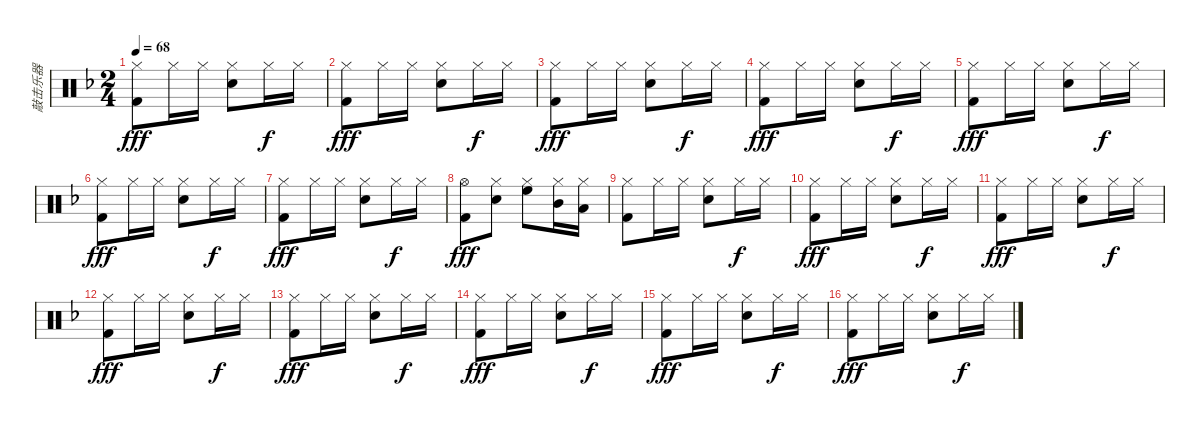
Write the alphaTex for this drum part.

\track ("敲击乐器" "敲击乐器") {instrument percussion}
\staff {score}
\articulation defaults
\ts (2 4)
\tempo 68
\clef neutral
\ks f
("Hi-Hat (closed)" "Kick (hit) 2").8{dy fff} "Hi-Hat (closed)".16 "Hi-Hat (closed)".16 ("Hi-Hat (closed)" "Electric Snare (hit)").8 "Hi-Hat (closed)".16{dy f} "Hi-Hat (closed)".16 |
("Hi-Hat (closed)" "Kick (hit) 2").8{dy fff} "Hi-Hat (closed)".16 "Hi-Hat (closed)".16 ("Hi-Hat (closed)" "Electric Snare (hit)").8 "Hi-Hat (closed)".16{dy f} "Hi-Hat (closed)".16 |
("Hi-Hat (closed)" "Kick (hit) 2").8{dy fff} "Hi-Hat (closed)".16 "Hi-Hat (closed)".16 ("Hi-Hat (closed)" "Electric Snare (hit)").8 "Hi-Hat (closed)".16{dy f} "Hi-Hat (closed)".16 |
("Hi-Hat (closed)" "Kick (hit) 2").8{dy fff} "Hi-Hat (closed)".16 "Hi-Hat (closed)".16 ("Hi-Hat (closed)" "Electric Snare (hit)").8 "Hi-Hat (closed)".16{dy f} "Hi-Hat (closed)".16 |
("Hi-Hat (closed)" "Kick (hit) 2").8{dy fff} "Hi-Hat (closed)".16 "Hi-Hat (closed)".16 ("Hi-Hat (closed)" "Electric Snare (hit)").8 "Hi-Hat (closed)".16{dy f} "Hi-Hat (closed)".16 |
("Hi-Hat (closed)" "Kick (hit) 2").8{dy fff} "Hi-Hat (closed)".16 "Hi-Hat (closed)".16 ("Hi-Hat (closed)" "Electric Snare (hit)").8 "Hi-Hat (closed)".16{dy f} "Hi-Hat (closed)".16 |
("Hi-Hat (closed)" "Kick (hit) 2").8{dy fff} "Hi-Hat (closed)".16 "Hi-Hat (closed)".16 ("Hi-Hat (closed)" "Electric Snare (hit)").8 "Hi-Hat (closed)".16{dy f} "Hi-Hat (closed)".16 |
("Hi-Hat (open)" "Kick (hit) 2").8{dy fff} ("Electric Snare (hit)" "Hi-Hat (closed)").8 ("High Floor Tom (hit)" "Hi-Hat (closed)").8 ("Mid Tom (hit)" "Hi-Hat (closed)").16 ("Low Tom (hit)" "Hi-Hat (closed)").16 |
("Hi-Hat (closed)" "Kick (hit) 2").8 "Hi-Hat (closed)".16 "Hi-Hat (closed)".16 ("Hi-Hat (closed)" "Electric Snare (hit)").8 "Hi-Hat (closed)".16{dy f} "Hi-Hat (closed)".16 |
("Hi-Hat (closed)" "Kick (hit) 2").8{dy fff} "Hi-Hat (closed)".16 "Hi-Hat (closed)".16 ("Hi-Hat (closed)" "Electric Snare (hit)").8 "Hi-Hat (closed)".16{dy f} "Hi-Hat (closed)".16 |
("Hi-Hat (closed)" "Kick (hit) 2").8{dy fff} "Hi-Hat (closed)".16 "Hi-Hat (closed)".16 ("Hi-Hat (closed)" "Electric Snare (hit)").8 "Hi-Hat (closed)".16{dy f} "Hi-Hat (closed)".16 |
("Hi-Hat (closed)" "Kick (hit) 2").8{dy fff} "Hi-Hat (closed)".16 "Hi-Hat (closed)".16 ("Hi-Hat (closed)" "Electric Snare (hit)").8 "Hi-Hat (closed)".16{dy f} "Hi-Hat (closed)".16 |
("Hi-Hat (closed)" "Kick (hit) 2").8{dy fff} "Hi-Hat (closed)".16 "Hi-Hat (closed)".16 ("Hi-Hat (closed)" "Electric Snare (hit)").8 "Hi-Hat (closed)".16{dy f} "Hi-Hat (closed)".16 |
("Hi-Hat (closed)" "Kick (hit) 2").8{dy fff} "Hi-Hat (closed)".16 "Hi-Hat (closed)".16 ("Hi-Hat (closed)" "Electric Snare (hit)").8 "Hi-Hat (closed)".16{dy f} "Hi-Hat (closed)".16 |
("Hi-Hat (closed)" "Kick (hit) 2").8{dy fff} "Hi-Hat (closed)".16 "Hi-Hat (closed)".16 ("Hi-Hat (closed)" "Electric Snare (hit)").8 "Hi-Hat (closed)".16{dy f} "Hi-Hat (closed)".16 |
("Hi-Hat (closed)" "Kick (hit) 2").8{dy fff} "Hi-Hat (closed)".16 "Hi-Hat (closed)".16 ("Hi-Hat (closed)" "Electric Snare (hit)").8 "Hi-Hat (closed)".16{dy f} "Hi-Hat (closed)".16
